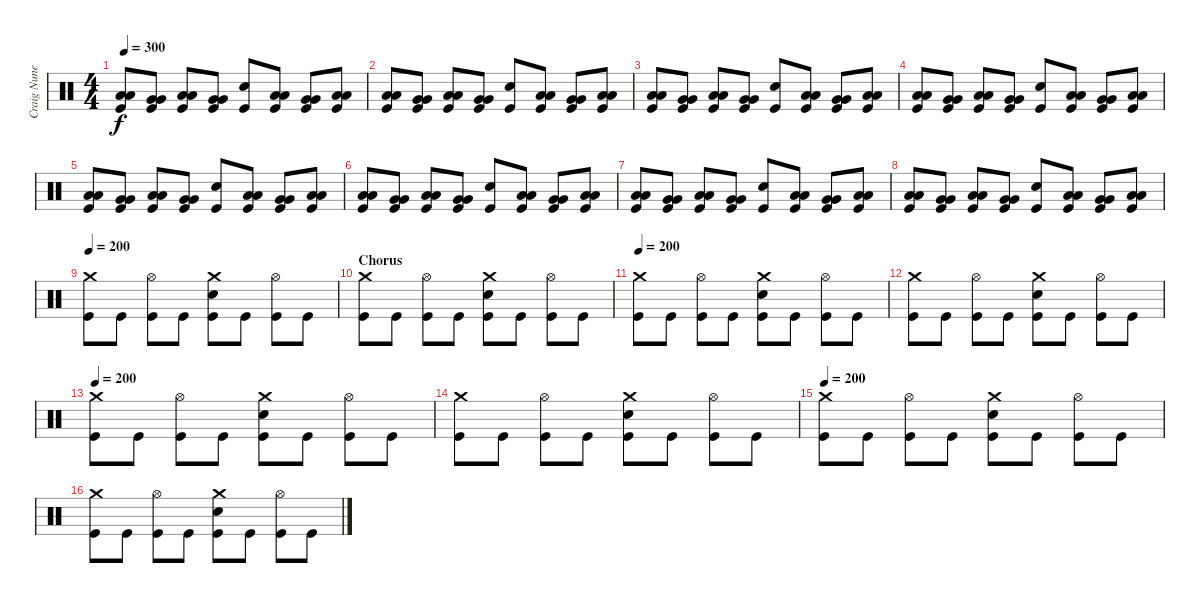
\track ("Craig Nunenmacher" "Craig Nune") {instrument percussion}
\staff {score}
\articulation defaults
\ts (4 4)
\tempo 300
\clef neutral
\ks c
("Low Tom (hit)" "Low Tom (hit)" "Kick (hit)").8{dy f} ("Very Low Tom (hit)" "Very Low Tom (hit)" "Kick (hit)").8 ("Low Tom (hit)" "Low Tom (hit)" "Kick (hit)").8 ("Very Low Tom (hit)" "Very Low Tom (hit)" "Kick (hit)").8 ("Snare (hit) 2" "Kick (hit)").8 ("Low Tom (hit)" "Low Tom (hit)" "Kick (hit)").8 ("Very Low Tom (hit)" "Very Low Tom (hit)" "Kick (hit)").8 ("Low Tom (hit)" "Low Tom (hit)" "Kick (hit)").8 |
("Low Tom (hit)" "Low Tom (hit)" "Kick (hit)").8 ("Very Low Tom (hit)" "Very Low Tom (hit)" "Kick (hit)").8 ("Low Tom (hit)" "Low Tom (hit)" "Kick (hit)").8 ("Very Low Tom (hit)" "Very Low Tom (hit)" "Kick (hit)").8 ("Snare (hit) 2" "Kick (hit)").8 ("Low Tom (hit)" "Low Tom (hit)" "Kick (hit)").8 ("Very Low Tom (hit)" "Very Low Tom (hit)" "Kick (hit)").8 ("Low Tom (hit)" "Low Tom (hit)" "Kick (hit)").8 |
("Low Tom (hit)" "Low Tom (hit)" "Kick (hit)").8 ("Very Low Tom (hit)" "Very Low Tom (hit)" "Kick (hit)").8 ("Low Tom (hit)" "Low Tom (hit)" "Kick (hit)").8 ("Very Low Tom (hit)" "Very Low Tom (hit)" "Kick (hit)").8 ("Snare (hit) 2" "Kick (hit)").8 ("Low Tom (hit)" "Low Tom (hit)" "Kick (hit)").8 ("Very Low Tom (hit)" "Very Low Tom (hit)" "Kick (hit)").8 ("Low Tom (hit)" "Low Tom (hit)" "Kick (hit)").8 |
("Low Tom (hit)" "Low Tom (hit)" "Kick (hit)").8 ("Very Low Tom (hit)" "Very Low Tom (hit)" "Kick (hit)").8 ("Low Tom (hit)" "Low Tom (hit)" "Kick (hit)").8 ("Very Low Tom (hit)" "Very Low Tom (hit)" "Kick (hit)").8 ("Snare (hit) 2" "Kick (hit)").8 ("Low Tom (hit)" "Low Tom (hit)" "Kick (hit)").8 ("Very Low Tom (hit)" "Very Low Tom (hit)" "Kick (hit)").8 ("Low Tom (hit)" "Low Tom (hit)" "Kick (hit)").8 |
("Low Tom (hit)" "Low Tom (hit)" "Kick (hit)").8 ("Very Low Tom (hit)" "Very Low Tom (hit)" "Kick (hit)").8 ("Low Tom (hit)" "Low Tom (hit)" "Kick (hit)").8 ("Very Low Tom (hit)" "Very Low Tom (hit)" "Kick (hit)").8 ("Snare (hit) 2" "Kick (hit)").8 ("Low Tom (hit)" "Low Tom (hit)" "Kick (hit)").8 ("Very Low Tom (hit)" "Very Low Tom (hit)" "Kick (hit)").8 ("Low Tom (hit)" "Low Tom (hit)" "Kick (hit)").8 |
("Low Tom (hit)" "Low Tom (hit)" "Kick (hit)").8 ("Very Low Tom (hit)" "Very Low Tom (hit)" "Kick (hit)").8 ("Low Tom (hit)" "Low Tom (hit)" "Kick (hit)").8 ("Very Low Tom (hit)" "Very Low Tom (hit)" "Kick (hit)").8 ("Snare (hit) 2" "Kick (hit)").8 ("Low Tom (hit)" "Low Tom (hit)" "Kick (hit)").8 ("Very Low Tom (hit)" "Very Low Tom (hit)" "Kick (hit)").8 ("Low Tom (hit)" "Low Tom (hit)" "Kick (hit)").8 |
("Low Tom (hit)" "Low Tom (hit)" "Kick (hit)").8 ("Very Low Tom (hit)" "Very Low Tom (hit)" "Kick (hit)").8 ("Low Tom (hit)" "Low Tom (hit)" "Kick (hit)").8 ("Very Low Tom (hit)" "Very Low Tom (hit)" "Kick (hit)").8 ("Snare (hit) 2" "Kick (hit)").8 ("Low Tom (hit)" "Low Tom (hit)" "Kick (hit)").8 ("Very Low Tom (hit)" "Very Low Tom (hit)" "Kick (hit)").8 ("Low Tom (hit)" "Low Tom (hit)" "Kick (hit)").8 |
("Low Tom (hit)" "Low Tom (hit)" "Kick (hit)").8 ("Very Low Tom (hit)" "Very Low Tom (hit)" "Kick (hit)").8 ("Low Tom (hit)" "Low Tom (hit)" "Kick (hit)").8 ("Very Low Tom (hit)" "Very Low Tom (hit)" "Kick (hit)").8 ("Snare (hit) 2" "Kick (hit)").8 ("Low Tom (hit)" "Low Tom (hit)" "Kick (hit)").8 ("Very Low Tom (hit)" "Very Low Tom (hit)" "Kick (hit)").8 ("Low Tom (hit)" "Low Tom (hit)" "Kick (hit)").8 |
\tempo 200
("Crash medium (hit)" "Kick (hit)").8 "Kick (hit)".8 ("Hi-Hat (open)" "Kick (hit)").8 "Kick (hit)".8 ("Crash medium (hit)" "Snare (hit) 2" "Kick (hit)").8 "Kick (hit)".8 ("Hi-Hat (open)" "Kick (hit)").8 "Kick (hit)".8 |
\section ("" "Chorus")
("Crash medium (hit)" "Kick (hit)").8 "Kick (hit)".8 ("Hi-Hat (open)" "Kick (hit)").8 "Kick (hit)".8 ("Crash medium (hit)" "Snare (hit) 2" "Kick (hit)").8 "Kick (hit)".8 ("Hi-Hat (open)" "Kick (hit)").8 "Kick (hit)".8 |
\tempo 200
("Crash medium (hit)" "Kick (hit)").8 "Kick (hit)".8 ("Hi-Hat (open)" "Kick (hit)").8 "Kick (hit)".8 ("Crash medium (hit)" "Snare (hit) 2" "Kick (hit)").8 "Kick (hit)".8 ("Hi-Hat (open)" "Kick (hit)").8 "Kick (hit)".8 |
("Crash medium (hit)" "Kick (hit)").8 "Kick (hit)".8 ("Hi-Hat (open)" "Kick (hit)").8 "Kick (hit)".8 ("Crash medium (hit)" "Snare (hit) 2" "Kick (hit)").8 "Kick (hit)".8 ("Hi-Hat (open)" "Kick (hit)").8 "Kick (hit)".8 |
\tempo 200
("Crash medium (hit)" "Kick (hit)").8 "Kick (hit)".8 ("Hi-Hat (open)" "Kick (hit)").8 "Kick (hit)".8 ("Crash medium (hit)" "Snare (hit) 2" "Kick (hit)").8 "Kick (hit)".8 ("Hi-Hat (open)" "Kick (hit)").8 "Kick (hit)".8 |
("Crash medium (hit)" "Kick (hit)").8 "Kick (hit)".8 ("Hi-Hat (open)" "Kick (hit)").8 "Kick (hit)".8 ("Crash medium (hit)" "Snare (hit) 2" "Kick (hit)").8 "Kick (hit)".8 ("Hi-Hat (open)" "Kick (hit)").8 "Kick (hit)".8 |
\tempo 200
("Crash medium (hit)" "Kick (hit)").8 "Kick (hit)".8 ("Hi-Hat (open)" "Kick (hit)").8 "Kick (hit)".8 ("Crash medium (hit)" "Snare (hit) 2" "Kick (hit)").8 "Kick (hit)".8 ("Hi-Hat (open)" "Kick (hit)").8 "Kick (hit)".8 |
("Crash medium (hit)" "Kick (hit)").8 "Kick (hit)".8 ("Hi-Hat (open)" "Kick (hit)").8 "Kick (hit)".8 ("Crash medium (hit)" "Snare (hit) 2" "Kick (hit)").8 "Kick (hit)".8 ("Hi-Hat (open)" "Kick (hit)").8 "Kick (hit)".8
